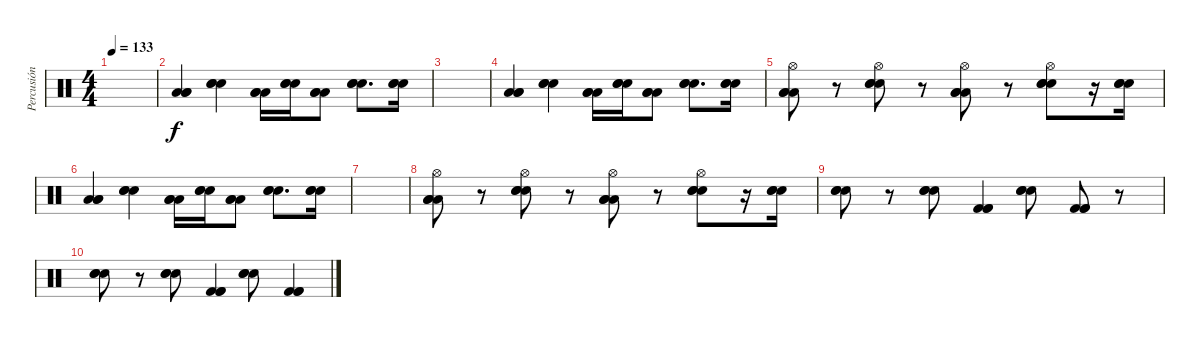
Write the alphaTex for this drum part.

\track ("Percusión" "Percusión") {instrument percussion}
\staff {score}
\articulation defaults
\ts (4 4)
\tempo 133
\clef neutral
\ks c
|
("Low Tom (hit)" "Low Tom (hit)" "Low Tom (hit)").4 ("Snare (hit) 2" "Snare (hit) 2" "Snare (hit) 2").4 ("Low Tom (hit)" "Low Tom (hit)" "Low Tom (hit)").16 ("Snare (hit) 2" "Snare (hit) 2" "Snare (hit) 2").16 ("Low Tom (hit)" "Low Tom (hit)" "Low Tom (hit)").8 ("Snare (hit) 2" "Snare (hit) 2" "Snare (hit) 2").8{d} ("Snare (hit) 2" "Snare (hit) 2" "Snare (hit) 2").16 |
|
("Low Tom (hit)" "Low Tom (hit)" "Low Tom (hit)").4 ("Snare (hit) 2" "Snare (hit) 2" "Snare (hit) 2").4 ("Low Tom (hit)" "Low Tom (hit)" "Low Tom (hit)").16 ("Snare (hit) 2" "Snare (hit) 2" "Snare (hit) 2").16 ("Low Tom (hit)" "Low Tom (hit)" "Low Tom (hit)").8 ("Snare (hit) 2" "Snare (hit) 2" "Snare (hit) 2").8{d} ("Snare (hit) 2" "Snare (hit) 2" "Snare (hit) 2").16 |
("Hi-Hat (open)" "Low Tom (hit)" "Low Tom (hit)" "Low Tom (hit)").8 r.8 ("Hi-Hat (open)" "Snare (hit) 2" "Snare (hit) 2" "Snare (hit) 2").8 r.8 ("Hi-Hat (open)" "Low Tom (hit)" "Low Tom (hit)" "Low Tom (hit)").8 r.8 ("Hi-Hat (open)" "Snare (hit) 2" "Snare (hit) 2" "Snare (hit) 2").8 r.16 ("Snare (hit) 2" "Snare (hit) 2" "Snare (hit) 2").16 |
("Low Tom (hit)" "Low Tom (hit)" "Low Tom (hit)").4 ("Snare (hit) 2" "Snare (hit) 2" "Snare (hit) 2").4 ("Low Tom (hit)" "Low Tom (hit)" "Low Tom (hit)").16 ("Snare (hit) 2" "Snare (hit) 2" "Snare (hit) 2").16 ("Low Tom (hit)" "Low Tom (hit)" "Low Tom (hit)").8 ("Snare (hit) 2" "Snare (hit) 2" "Snare (hit) 2").8{d} ("Snare (hit) 2" "Snare (hit) 2" "Snare (hit) 2").16 |
|
("Hi-Hat (open)" "Low Tom (hit)" "Low Tom (hit)" "Low Tom (hit)").8 r.8 ("Hi-Hat (open)" "Snare (hit) 2" "Snare (hit) 2" "Snare (hit) 2").8 r.8 ("Hi-Hat (open)" "Low Tom (hit)" "Low Tom (hit)" "Low Tom (hit)").8 r.8 ("Hi-Hat (open)" "Snare (hit) 2" "Snare (hit) 2" "Snare (hit) 2").8 r.16 ("Snare (hit) 2" "Snare (hit) 2" "Snare (hit) 2").16 |
("Snare (hit) 2" "Snare (hit) 2" "Snare (hit) 2").8 r.8 ("Snare (hit) 2" "Snare (hit) 2" "Snare (hit) 2").8 ("Kick (hit) 2" "Kick (hit) 2" "Kick (hit) 2").4 ("Snare (hit) 2" "Snare (hit) 2" "Snare (hit) 2").8 ("Kick (hit) 2" "Kick (hit) 2" "Kick (hit) 2").8 r.8 |
("Snare (hit) 2" "Snare (hit) 2" "Snare (hit) 2").8 r.8 ("Snare (hit) 2" "Snare (hit) 2" "Snare (hit) 2").8 ("Kick (hit) 2" "Kick (hit) 2" "Kick (hit) 2").4 ("Snare (hit) 2" "Snare (hit) 2" "Snare (hit) 2").8 ("Kick (hit) 2" "Kick (hit) 2" "Kick (hit) 2").4
